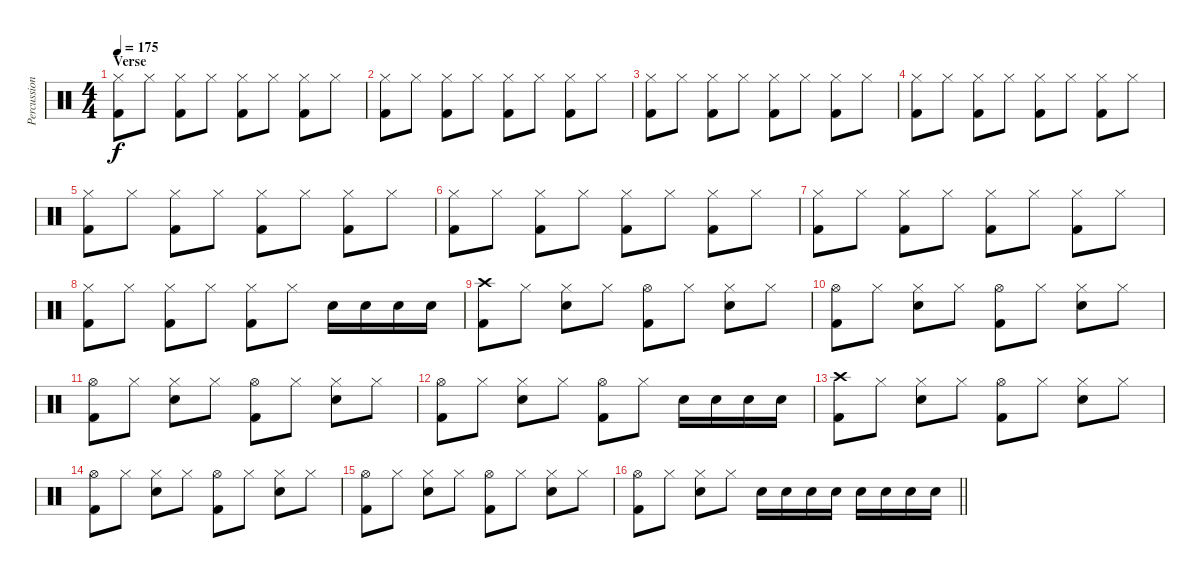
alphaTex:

\track ("Percussion" "Percussion") {instrument percussion}
\staff {score}
\articulation defaults
\ts (4 4)
\section ("" "Verse")
\tempo 175
\clef neutral
\ks c
("Hi-Hat (closed)" "Kick (hit) 2").8{dy f} "Hi-Hat (closed)".8 ("Hi-Hat (closed)" "Kick (hit) 2").8 "Hi-Hat (closed)".8 ("Hi-Hat (closed)" "Kick (hit) 2").8 "Hi-Hat (closed)".8 ("Hi-Hat (closed)" "Kick (hit) 2").8 "Hi-Hat (closed)".8 |
("Hi-Hat (closed)" "Kick (hit) 2").8 "Hi-Hat (closed)".8 ("Hi-Hat (closed)" "Kick (hit) 2").8 "Hi-Hat (closed)".8 ("Hi-Hat (closed)" "Kick (hit) 2").8 "Hi-Hat (closed)".8 ("Hi-Hat (closed)" "Kick (hit) 2").8 "Hi-Hat (closed)".8 |
("Hi-Hat (closed)" "Kick (hit) 2").8 "Hi-Hat (closed)".8 ("Hi-Hat (closed)" "Kick (hit) 2").8 "Hi-Hat (closed)".8 ("Hi-Hat (closed)" "Kick (hit) 2").8 "Hi-Hat (closed)".8 ("Hi-Hat (closed)" "Kick (hit) 2").8 "Hi-Hat (closed)".8 |
("Hi-Hat (closed)" "Kick (hit) 2").8 "Hi-Hat (closed)".8 ("Hi-Hat (closed)" "Kick (hit) 2").8 "Hi-Hat (closed)".8 ("Hi-Hat (closed)" "Kick (hit) 2").8 "Hi-Hat (closed)".8 ("Hi-Hat (closed)" "Kick (hit) 2").8 "Hi-Hat (closed)".8 |
("Hi-Hat (closed)" "Kick (hit) 2").8 "Hi-Hat (closed)".8 ("Hi-Hat (closed)" "Kick (hit) 2").8 "Hi-Hat (closed)".8 ("Hi-Hat (closed)" "Kick (hit) 2").8 "Hi-Hat (closed)".8 ("Hi-Hat (closed)" "Kick (hit) 2").8 "Hi-Hat (closed)".8 |
("Hi-Hat (closed)" "Kick (hit) 2").8 "Hi-Hat (closed)".8 ("Hi-Hat (closed)" "Kick (hit) 2").8 "Hi-Hat (closed)".8 ("Hi-Hat (closed)" "Kick (hit) 2").8 "Hi-Hat (closed)".8 ("Hi-Hat (closed)" "Kick (hit) 2").8 "Hi-Hat (closed)".8 |
("Hi-Hat (closed)" "Kick (hit) 2").8 "Hi-Hat (closed)".8 ("Hi-Hat (closed)" "Kick (hit) 2").8 "Hi-Hat (closed)".8 ("Hi-Hat (closed)" "Kick (hit) 2").8 "Hi-Hat (closed)".8 ("Hi-Hat (closed)" "Kick (hit) 2").8 "Hi-Hat (closed)".8 |
("Hi-Hat (closed)" "Kick (hit) 2").8 "Hi-Hat (closed)".8 ("Hi-Hat (closed)" "Kick (hit) 2").8 "Hi-Hat (closed)".8 ("Hi-Hat (closed)" "Kick (hit) 2").8 "Hi-Hat (closed)".8 "Snare (hit) 2".16 "Snare (hit) 2".16 "Snare (hit) 2".16 "Snare (hit) 2".16 |
("Crash high (hit)" "Kick (hit) 2").8 "Hi-Hat (closed)".8 ("Hi-Hat (closed)" "Snare (hit) 2").8 "Hi-Hat (closed)".8 ("Hi-Hat (open)" "Kick (hit) 2").8 "Hi-Hat (closed)".8 ("Hi-Hat (closed)" "Snare (hit) 2").8 "Hi-Hat (closed)".8 |
("Hi-Hat (open)" "Kick (hit) 2").8 "Hi-Hat (closed)".8 ("Hi-Hat (closed)" "Snare (hit) 2").8 "Hi-Hat (closed)".8 ("Hi-Hat (open)" "Kick (hit) 2").8 "Hi-Hat (closed)".8 ("Hi-Hat (closed)" "Snare (hit) 2").8 "Hi-Hat (closed)".8 |
("Hi-Hat (open)" "Kick (hit) 2").8 "Hi-Hat (closed)".8 ("Hi-Hat (closed)" "Snare (hit) 2").8 "Hi-Hat (closed)".8 ("Hi-Hat (open)" "Kick (hit) 2").8 "Hi-Hat (closed)".8 ("Hi-Hat (closed)" "Snare (hit) 2").8 "Hi-Hat (closed)".8 |
("Hi-Hat (open)" "Kick (hit) 2").8 "Hi-Hat (closed)".8 ("Hi-Hat (closed)" "Snare (hit) 2").8 "Hi-Hat (closed)".8 ("Hi-Hat (open)" "Kick (hit) 2").8 "Hi-Hat (closed)".8 "Snare (hit) 2".16 "Snare (hit) 2".16 "Snare (hit) 2".16 "Snare (hit) 2".16 |
("Crash high (hit)" "Kick (hit) 2").8 "Hi-Hat (closed)".8 ("Hi-Hat (closed)" "Snare (hit) 2").8 "Hi-Hat (closed)".8 ("Hi-Hat (open)" "Kick (hit) 2").8 "Hi-Hat (closed)".8 ("Hi-Hat (closed)" "Snare (hit) 2").8 "Hi-Hat (closed)".8 |
("Hi-Hat (open)" "Kick (hit) 2").8 "Hi-Hat (closed)".8 ("Hi-Hat (closed)" "Snare (hit) 2").8 "Hi-Hat (closed)".8 ("Hi-Hat (open)" "Kick (hit) 2").8 "Hi-Hat (closed)".8 ("Hi-Hat (closed)" "Snare (hit) 2").8 "Hi-Hat (closed)".8 |
("Hi-Hat (open)" "Kick (hit) 2").8 "Hi-Hat (closed)".8 ("Hi-Hat (closed)" "Snare (hit) 2").8 "Hi-Hat (closed)".8 ("Hi-Hat (open)" "Kick (hit) 2").8 "Hi-Hat (closed)".8 ("Hi-Hat (closed)" "Snare (hit) 2").8 "Hi-Hat (closed)".8 |
\barLineRight lightlight
("Hi-Hat (open)" "Kick (hit) 2").8 "Hi-Hat (closed)".8 ("Hi-Hat (closed)" "Snare (hit) 2").8 "Hi-Hat (closed)".8 "Snare (hit) 2".16 "Snare (hit) 2".16 "Snare (hit) 2".16 "Snare (hit) 2".16 "Snare (hit) 2".16 "Snare (hit) 2".16 "Snare (hit) 2".16 "Snare (hit) 2".16
